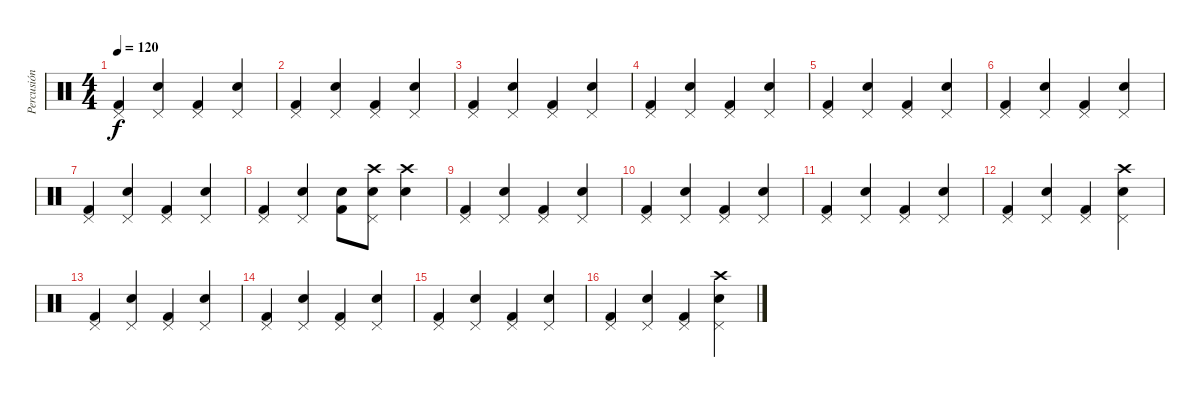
\track ("Percusión" "Percusión") {instrument percussion}
\staff {score}
\articulation defaults
\ts (4 4)
\tempo 120
\clef neutral
\ks c
("Pedal Hi-Hat (hit)" "Kick (hit) 2").4{dy f} ("Pedal Hi-Hat (hit)" "Electric Snare (hit)").4 ("Pedal Hi-Hat (hit)" "Kick (hit) 2").4 ("Pedal Hi-Hat (hit)" "Electric Snare (hit)").4 |
("Pedal Hi-Hat (hit)" "Kick (hit) 2").4 ("Pedal Hi-Hat (hit)" "Electric Snare (hit)").4 ("Pedal Hi-Hat (hit)" "Kick (hit) 2").4 ("Pedal Hi-Hat (hit)" "Electric Snare (hit)").4 |
("Pedal Hi-Hat (hit)" "Kick (hit) 2").4 ("Pedal Hi-Hat (hit)" "Electric Snare (hit)").4 ("Pedal Hi-Hat (hit)" "Kick (hit) 2").4 ("Pedal Hi-Hat (hit)" "Electric Snare (hit)").4 |
("Pedal Hi-Hat (hit)" "Kick (hit) 2").4 ("Pedal Hi-Hat (hit)" "Electric Snare (hit)").4 ("Pedal Hi-Hat (hit)" "Kick (hit) 2").4 ("Pedal Hi-Hat (hit)" "Electric Snare (hit)").4 |
("Pedal Hi-Hat (hit)" "Kick (hit) 2").4 ("Pedal Hi-Hat (hit)" "Electric Snare (hit)").4 ("Pedal Hi-Hat (hit)" "Kick (hit) 2").4 ("Pedal Hi-Hat (hit)" "Electric Snare (hit)").4 |
("Pedal Hi-Hat (hit)" "Kick (hit) 2").4 ("Pedal Hi-Hat (hit)" "Electric Snare (hit)").4 ("Pedal Hi-Hat (hit)" "Kick (hit) 2").4 ("Pedal Hi-Hat (hit)" "Electric Snare (hit)").4 |
("Pedal Hi-Hat (hit)" "Kick (hit) 2").4 ("Pedal Hi-Hat (hit)" "Electric Snare (hit)").4 ("Pedal Hi-Hat (hit)" "Kick (hit) 2").4 ("Pedal Hi-Hat (hit)" "Electric Snare (hit)").4 |
("Pedal Hi-Hat (hit)" "Kick (hit) 2").4 ("Pedal Hi-Hat (hit)" "Electric Snare (hit)").4 ("Electric Snare (hit)" "Kick (hit) 2").8 ("Crash high (hit)" "Pedal Hi-Hat (hit)" "Electric Snare (hit)").8 ("Crash high (hit)" "Electric Snare (hit)").4 |
("Pedal Hi-Hat (hit)" "Kick (hit) 2").4 ("Pedal Hi-Hat (hit)" "Electric Snare (hit)").4 ("Pedal Hi-Hat (hit)" "Kick (hit) 2").4 ("Pedal Hi-Hat (hit)" "Electric Snare (hit)").4 |
("Pedal Hi-Hat (hit)" "Kick (hit) 2").4 ("Pedal Hi-Hat (hit)" "Electric Snare (hit)").4 ("Pedal Hi-Hat (hit)" "Kick (hit) 2").4 ("Pedal Hi-Hat (hit)" "Electric Snare (hit)").4 |
("Pedal Hi-Hat (hit)" "Kick (hit) 2").4 ("Pedal Hi-Hat (hit)" "Electric Snare (hit)").4 ("Pedal Hi-Hat (hit)" "Kick (hit) 2").4 ("Pedal Hi-Hat (hit)" "Electric Snare (hit)").4 |
("Pedal Hi-Hat (hit)" "Kick (hit) 2").4 ("Pedal Hi-Hat (hit)" "Electric Snare (hit)").4 ("Pedal Hi-Hat (hit)" "Kick (hit) 2").4 ("Crash high (hit)" "Pedal Hi-Hat (hit)" "Electric Snare (hit)").4 |
("Pedal Hi-Hat (hit)" "Kick (hit) 2").4 ("Pedal Hi-Hat (hit)" "Electric Snare (hit)").4 ("Pedal Hi-Hat (hit)" "Kick (hit) 2").4 ("Pedal Hi-Hat (hit)" "Electric Snare (hit)").4 |
("Pedal Hi-Hat (hit)" "Kick (hit) 2").4 ("Pedal Hi-Hat (hit)" "Electric Snare (hit)").4 ("Pedal Hi-Hat (hit)" "Kick (hit) 2").4 ("Pedal Hi-Hat (hit)" "Electric Snare (hit)").4 |
("Pedal Hi-Hat (hit)" "Kick (hit) 2").4 ("Pedal Hi-Hat (hit)" "Electric Snare (hit)").4 ("Pedal Hi-Hat (hit)" "Kick (hit) 2").4 ("Pedal Hi-Hat (hit)" "Electric Snare (hit)").4 |
("Pedal Hi-Hat (hit)" "Kick (hit) 2").4 ("Pedal Hi-Hat (hit)" "Electric Snare (hit)").4 ("Pedal Hi-Hat (hit)" "Kick (hit) 2").4 ("Crash high (hit)" "Pedal Hi-Hat (hit)" "Electric Snare (hit)").4
